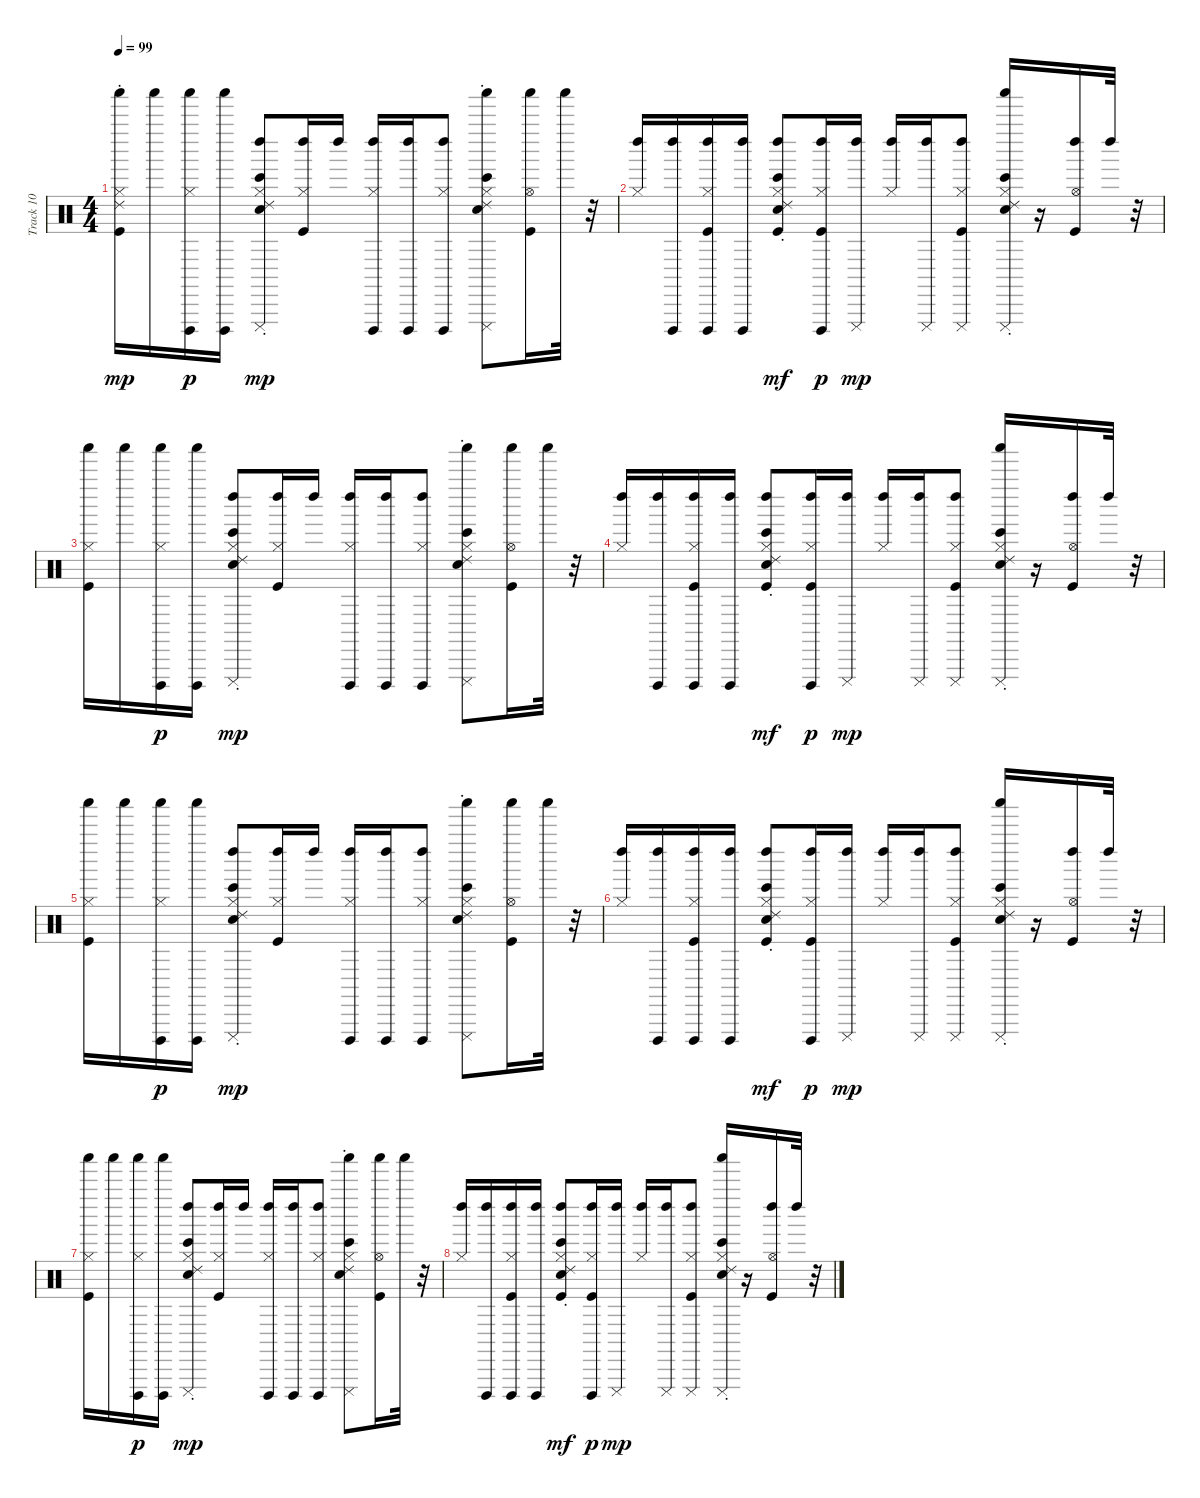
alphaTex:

\track ("Track 10" "Track 10") {instrument percussion}
\staff {score}
\articulation defaults
\ts (4 4)
\tempo 99
\clef neutral
\ks c
("Ride (choke) 2" "Kick (hit)" "Hi-Hat (closed)" "Shaker (hit)").16{dy mp} "Shaker (hit)".16 ("Hi-Hat (closed)" "Cuica (open)" "Shaker (hit)").16{dy p} ("Cuica (open)" "Shaker (hit)").16 ("Bongo High (hit)" "Ride (choke) 2" "Electric Snare (hit)" "Hi-Hat (closed)" "Left Maraca (hit)" "Cuica (mute)").8{dy mp} ("Kick (hit)" "Hi-Hat (closed)" "Left Maraca (hit)").16 "Left Maraca (hit)".16 ("Hi-Hat (closed)" "Left Maraca (hit)" "Cuica (open)").16 ("Cuica (open)" "Left Maraca (hit)").16 ("Hi-Hat (closed)" "Left Maraca (hit)" "Cuica (open)").8 ("Bongo High (hit)" "Ride (choke) 2" "Electric Snare (hit)" "Hi-Hat (closed)" "Cuica (mute)" "Shaker (hit)").8 ("Kick (hit)" "Hi-Hat (open)" "Shaker (hit)").16 "Shaker (hit)".32 r.32 |
("Hi-Hat (closed)" "Left Maraca (hit)").16 ("Cuica (open)" "Left Maraca (hit)").16 ("Kick (hit)" "Hi-Hat (closed)" "Left Maraca (hit)" "Cuica (open)").16 ("Cuica (open)" "Left Maraca (hit)").16 ("Bongo High (hit)" "Ride (choke) 2" "Kick (hit)" "Electric Snare (hit)" "Hi-Hat (closed)" "Left Maraca (hit)").8{dy mf} ("Kick (hit)" "Hi-Hat (closed)" "Left Maraca (hit)" "Cuica (open)").16{dy p} ("Cuica (mute)" "Left Maraca (hit)").16{dy mp} ("Hi-Hat (closed)" "Left Maraca (hit)").16 ("Cuica (mute)" "Left Maraca (hit)").16 ("Kick (hit)" "Hi-Hat (closed)" "Left Maraca (hit)" "Cuica (mute)").8 ("Bongo High (hit)" "Ride (choke) 2" "Electric Snare (hit)" "Hi-Hat (closed)" "Cuica (mute)" "Shaker (hit)").16 r.16 ("Kick (hit)" "Hi-Hat (open)" "Left Maraca (hit)").16 "Left Maraca (hit)".32 r.32 |
("Kick (hit)" "Hi-Hat (closed)" "Shaker (hit)").16 "Shaker (hit)".16 ("Hi-Hat (closed)" "Cuica (open)" "Shaker (hit)").16{dy p} ("Cuica (open)" "Shaker (hit)").16 ("Bongo High (hit)" "Ride (choke) 2" "Electric Snare (hit)" "Hi-Hat (closed)" "Left Maraca (hit)" "Cuica (mute)").8{dy mp} ("Kick (hit)" "Hi-Hat (closed)" "Left Maraca (hit)").16 "Left Maraca (hit)".16 ("Hi-Hat (closed)" "Left Maraca (hit)" "Cuica (open)").16 ("Cuica (open)" "Left Maraca (hit)").16 ("Hi-Hat (closed)" "Left Maraca (hit)" "Cuica (open)").8 ("Bongo High (hit)" "Ride (choke) 2" "Electric Snare (hit)" "Hi-Hat (closed)" "Cuica (mute)" "Shaker (hit)").8 ("Kick (hit)" "Hi-Hat (open)" "Shaker (hit)").16 "Shaker (hit)".32 r.32 |
("Hi-Hat (closed)" "Left Maraca (hit)").16 ("Cuica (open)" "Left Maraca (hit)").16 ("Kick (hit)" "Hi-Hat (closed)" "Left Maraca (hit)" "Cuica (open)").16 ("Cuica (open)" "Left Maraca (hit)").16 ("Bongo High (hit)" "Ride (choke) 2" "Kick (hit)" "Electric Snare (hit)" "Hi-Hat (closed)" "Left Maraca (hit)").8{dy mf} ("Kick (hit)" "Hi-Hat (closed)" "Left Maraca (hit)" "Cuica (open)").16{dy p} ("Cuica (mute)" "Left Maraca (hit)").16{dy mp} ("Hi-Hat (closed)" "Left Maraca (hit)").16 ("Cuica (mute)" "Left Maraca (hit)").16 ("Kick (hit)" "Hi-Hat (closed)" "Left Maraca (hit)" "Cuica (mute)").8 ("Bongo High (hit)" "Ride (choke) 2" "Electric Snare (hit)" "Hi-Hat (closed)" "Cuica (mute)" "Shaker (hit)").16 r.16 ("Kick (hit)" "Hi-Hat (open)" "Left Maraca (hit)").16 "Left Maraca (hit)".32 r.32 |
("Kick (hit)" "Hi-Hat (closed)" "Shaker (hit)").16 "Shaker (hit)".16 ("Hi-Hat (closed)" "Cuica (open)" "Shaker (hit)").16{dy p} ("Cuica (open)" "Shaker (hit)").16 ("Bongo High (hit)" "Ride (choke) 2" "Electric Snare (hit)" "Hi-Hat (closed)" "Left Maraca (hit)" "Cuica (mute)").8{dy mp} ("Kick (hit)" "Hi-Hat (closed)" "Left Maraca (hit)").16 "Left Maraca (hit)".16 ("Hi-Hat (closed)" "Left Maraca (hit)" "Cuica (open)").16 ("Cuica (open)" "Left Maraca (hit)").16 ("Hi-Hat (closed)" "Left Maraca (hit)" "Cuica (open)").8 ("Bongo High (hit)" "Ride (choke) 2" "Electric Snare (hit)" "Hi-Hat (closed)" "Cuica (mute)" "Shaker (hit)").8 ("Kick (hit)" "Hi-Hat (open)" "Shaker (hit)").16 "Shaker (hit)".32 r.32 |
("Hi-Hat (closed)" "Left Maraca (hit)").16 ("Cuica (open)" "Left Maraca (hit)").16 ("Kick (hit)" "Hi-Hat (closed)" "Left Maraca (hit)" "Cuica (open)").16 ("Cuica (open)" "Left Maraca (hit)").16 ("Bongo High (hit)" "Ride (choke) 2" "Kick (hit)" "Electric Snare (hit)" "Hi-Hat (closed)" "Left Maraca (hit)").8{dy mf} ("Kick (hit)" "Hi-Hat (closed)" "Left Maraca (hit)" "Cuica (open)").16{dy p} ("Cuica (mute)" "Left Maraca (hit)").16{dy mp} ("Hi-Hat (closed)" "Left Maraca (hit)").16 ("Cuica (mute)" "Left Maraca (hit)").16 ("Kick (hit)" "Hi-Hat (closed)" "Left Maraca (hit)" "Cuica (mute)").8 ("Bongo High (hit)" "Ride (choke) 2" "Electric Snare (hit)" "Hi-Hat (closed)" "Cuica (mute)" "Shaker (hit)").16 r.16 ("Kick (hit)" "Hi-Hat (open)" "Left Maraca (hit)").16 "Left Maraca (hit)".32 r.32 |
("Kick (hit)" "Hi-Hat (closed)" "Shaker (hit)").16 "Shaker (hit)".16 ("Hi-Hat (closed)" "Cuica (open)" "Shaker (hit)").16{dy p} ("Cuica (open)" "Shaker (hit)").16 ("Bongo High (hit)" "Ride (choke) 2" "Electric Snare (hit)" "Hi-Hat (closed)" "Left Maraca (hit)" "Cuica (mute)").8{dy mp} ("Kick (hit)" "Hi-Hat (closed)" "Left Maraca (hit)").16 "Left Maraca (hit)".16 ("Hi-Hat (closed)" "Left Maraca (hit)" "Cuica (open)").16 ("Cuica (open)" "Left Maraca (hit)").16 ("Hi-Hat (closed)" "Left Maraca (hit)" "Cuica (open)").8 ("Bongo High (hit)" "Ride (choke) 2" "Electric Snare (hit)" "Hi-Hat (closed)" "Cuica (mute)" "Shaker (hit)").8 ("Kick (hit)" "Hi-Hat (open)" "Shaker (hit)").16 "Shaker (hit)".32 r.32 |
("Hi-Hat (closed)" "Left Maraca (hit)").16 ("Cuica (open)" "Left Maraca (hit)").16 ("Kick (hit)" "Hi-Hat (closed)" "Left Maraca (hit)" "Cuica (open)").16 ("Cuica (open)" "Left Maraca (hit)").16 ("Bongo High (hit)" "Ride (choke) 2" "Kick (hit)" "Electric Snare (hit)" "Hi-Hat (closed)" "Left Maraca (hit)").8{dy mf} ("Kick (hit)" "Hi-Hat (closed)" "Left Maraca (hit)" "Cuica (open)").16{dy p} ("Cuica (mute)" "Left Maraca (hit)").16{dy mp} ("Hi-Hat (closed)" "Left Maraca (hit)").16 ("Cuica (mute)" "Left Maraca (hit)").16 ("Kick (hit)" "Hi-Hat (closed)" "Left Maraca (hit)" "Cuica (mute)").8 ("Bongo High (hit)" "Ride (choke) 2" "Electric Snare (hit)" "Hi-Hat (closed)" "Cuica (mute)" "Shaker (hit)").16 r.16 ("Kick (hit)" "Hi-Hat (open)" "Left Maraca (hit)").16 "Left Maraca (hit)".32 r.32
